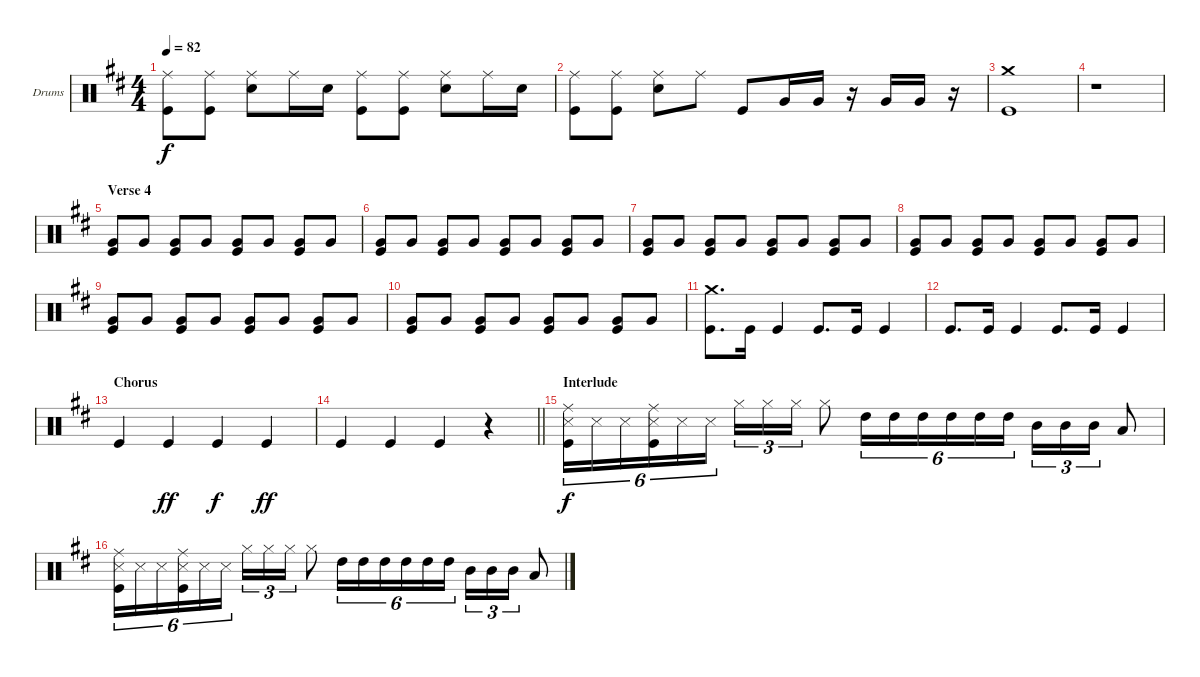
\bracketExtendMode groupsimilarinstruments
\firstSystemTrackNameOrientation horizontal
\otherSystemsTrackNameOrientation horizontal
\track ("Drumkit" "Drums") {instrument percussion}
\staff {score}
\articulation defaults
\ts (4 4)
\tempo 82
\clef neutral
\ks d
("Ride (middle)" "Kick (hit)").8{dy f} ("Ride (middle)" "Kick (hit)").8 ("Ride (middle)" "Snare (hit) 2").8 "Ride (middle)".16 "Snare (hit) 2".16 ("Ride (middle)" "Kick (hit)").8 ("Ride (middle)" "Kick (hit)").8 ("Ride (middle)" "Snare (hit) 2").8 "Ride (middle)".16 "Snare (hit) 2".16 |
("Ride (middle)" "Kick (hit)").8 ("Ride (middle)" "Kick (hit)").8 ("Ride (middle)" "Snare (hit) 2").8 "Ride (middle)".8 "Kick (hit)".8 "Very Low Tom (hit)".16 "Very Low Tom (hit)".16 r.16 "Very Low Tom (hit)".16 "Very Low Tom (hit)".16 r.16 |
("Crash medium (hit)" "Kick (hit)").1 |
r.1 |
\section ("" "Verse 4")
("Very Low Tom (hit)" "Kick (hit)").8 "Very Low Tom (hit)".8 ("Very Low Tom (hit)" "Kick (hit)").8 "Very Low Tom (hit)".8 ("Very Low Tom (hit)" "Kick (hit)").8 "Very Low Tom (hit)".8 ("Very Low Tom (hit)" "Kick (hit)").8 "Very Low Tom (hit)".8 |
("Very Low Tom (hit)" "Kick (hit)").8 "Very Low Tom (hit)".8 ("Very Low Tom (hit)" "Kick (hit)").8 "Very Low Tom (hit)".8 ("Very Low Tom (hit)" "Kick (hit)").8 "Very Low Tom (hit)".8 ("Very Low Tom (hit)" "Kick (hit)").8 "Very Low Tom (hit)".8 |
("Very Low Tom (hit)" "Kick (hit)").8 "Very Low Tom (hit)".8 ("Very Low Tom (hit)" "Kick (hit)").8 "Very Low Tom (hit)".8 ("Very Low Tom (hit)" "Kick (hit)").8 "Very Low Tom (hit)".8 ("Very Low Tom (hit)" "Kick (hit)").8 "Very Low Tom (hit)".8 |
("Very Low Tom (hit)" "Kick (hit)").8 "Very Low Tom (hit)".8 ("Very Low Tom (hit)" "Kick (hit)").8 "Very Low Tom (hit)".8 ("Very Low Tom (hit)" "Kick (hit)").8 "Very Low Tom (hit)".8 ("Very Low Tom (hit)" "Kick (hit)").8 "Very Low Tom (hit)".8 |
("Very Low Tom (hit)" "Kick (hit)").8 "Very Low Tom (hit)".8 ("Very Low Tom (hit)" "Kick (hit)").8 "Very Low Tom (hit)".8 ("Very Low Tom (hit)" "Kick (hit)").8 "Very Low Tom (hit)".8 ("Very Low Tom (hit)" "Kick (hit)").8 "Very Low Tom (hit)".8 |
("Very Low Tom (hit)" "Kick (hit)").8 "Very Low Tom (hit)".8 ("Very Low Tom (hit)" "Kick (hit)").8 "Very Low Tom (hit)".8 ("Very Low Tom (hit)" "Kick (hit)").8 "Very Low Tom (hit)".8 ("Very Low Tom (hit)" "Kick (hit)").8 "Very Low Tom (hit)".8 |
("Crash medium (hit)" "Kick (hit)").8{d} "Kick (hit)".16 "Kick (hit)".4 "Kick (hit)".8{d} "Kick (hit)".16 "Kick (hit)".4 |
"Kick (hit)".8{d} "Kick (hit)".16 "Kick (hit)".4 "Kick (hit)".8{d} "Kick (hit)".16 "Kick (hit)".4 |
\section ("" "Chorus")
"Kick (hit)".4 "Kick (hit)".4{dy ff} "Kick (hit)".4{dy f} "Kick (hit)".4{dy ff} |
\barLineRight lightlight "Kick (hit)".4 "Kick (hit)".4 "Kick (hit)".4
r.4 |
\section ("" "Interlude")
("Snare (side stick) 3" "Kick (hit)" "Ride (middle)").16{tu (6 4) dy f} "Snare (side stick) 3".16{tu (6 4)} "Snare (side stick) 3".16{tu (6 4)} ("Snare (side stick) 3" "Kick (hit)" "Ride (middle)").16{tu (6 4)} "Snare (side stick) 3".16{tu (6 4)} "Snare (side stick) 3".16{tu (6 4)} "Hi-Hat (closed)".16{tu (3 2)} "Hi-Hat (closed)".16{tu (3 2)} "Hi-Hat (closed)".16{tu (3 2)} "Hi-Hat (closed)".8 "High Tom (hit)".16{tu (6 4)} "High Tom (hit)".16{tu (6 4)} "High Tom (hit)".16{tu (6 4)} "High Tom (hit)".16{tu (6 4)} "High Tom (hit)".16{tu (6 4)} "High Tom (hit)".16{tu (6 4)} "Mid Tom (hit)".16{tu (3 2)} "Mid Tom (hit)".16{tu (3 2)} "Mid Tom (hit)".16{tu (3 2)} "Low Tom (hit)".8 |
("Snare (side stick) 3" "Kick (hit)" "Ride (middle)").16{tu (6 4)} "Snare (side stick) 3".16{tu (6 4)} "Snare (side stick) 3".16{tu (6 4)} ("Snare (side stick) 3" "Kick (hit)" "Ride (middle)").16{tu (6 4)} "Snare (side stick) 3".16{tu (6 4)} "Snare (side stick) 3".16{tu (6 4)} "Hi-Hat (closed)".16{tu (3 2)} "Hi-Hat (closed)".16{tu (3 2)} "Hi-Hat (closed)".16{tu (3 2)} "Hi-Hat (closed)".8 "High Tom (hit)".16{tu (6 4)} "High Tom (hit)".16{tu (6 4)} "High Tom (hit)".16{tu (6 4)} "High Tom (hit)".16{tu (6 4)} "High Tom (hit)".16{tu (6 4)} "High Tom (hit)".16{tu (6 4)} "Mid Tom (hit)".16{tu (3 2)} "Mid Tom (hit)".16{tu (3 2)} "Mid Tom (hit)".16{tu (3 2)} "Low Tom (hit)".8
